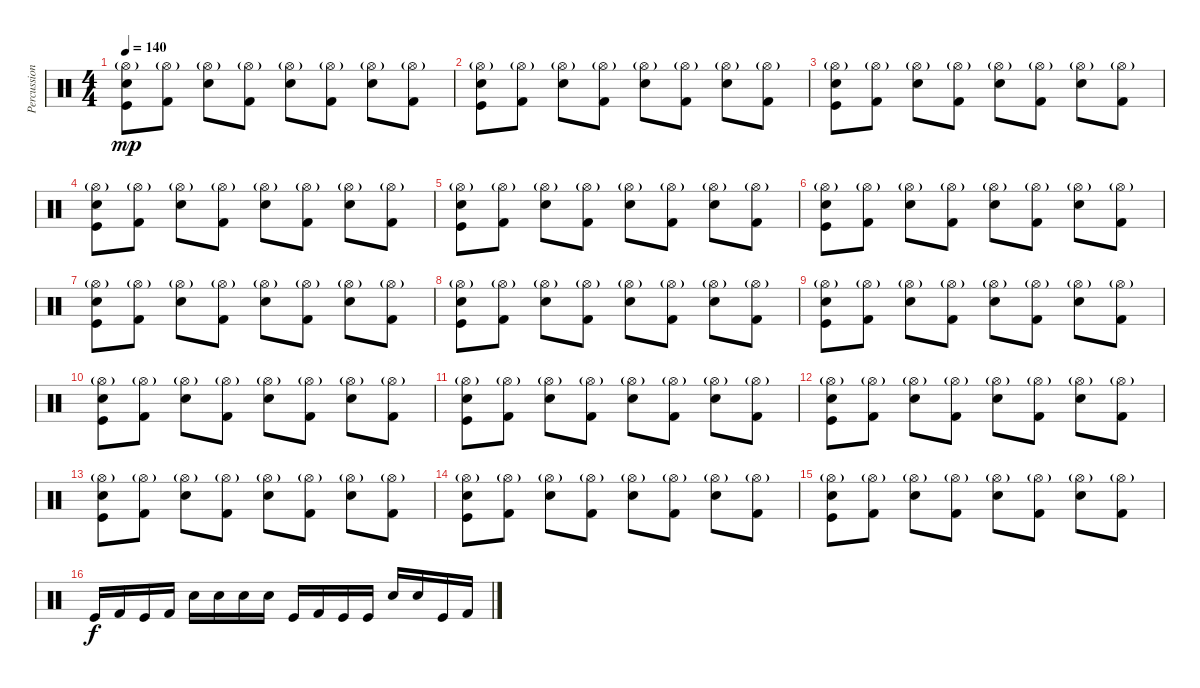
\track ("Percussion" "Percussion") {instrument percussion}
\staff {score}
\articulation defaults
\ts (4 4)
\tempo 140
\clef neutral
\ks c
("Hi-Hat (open)"{g} "Snare (hit) 2" "Kick (hit)").8{dy mp} ("Hi-Hat (open)"{g} "Kick (hit) 2").8 ("Hi-Hat (open)"{g} "Snare (hit) 2").8 ("Hi-Hat (open)"{g} "Kick (hit) 2").8 ("Hi-Hat (open)"{g} "Snare (hit) 2").8 ("Hi-Hat (open)"{g} "Kick (hit) 2").8 ("Hi-Hat (open)"{g} "Snare (hit) 2").8 ("Hi-Hat (open)"{g} "Kick (hit) 2").8 |
("Hi-Hat (open)"{g} "Snare (hit) 2" "Kick (hit)").8 ("Hi-Hat (open)"{g} "Kick (hit) 2").8 ("Hi-Hat (open)"{g} "Snare (hit) 2").8 ("Hi-Hat (open)"{g} "Kick (hit) 2").8 ("Hi-Hat (open)"{g} "Snare (hit) 2").8 ("Hi-Hat (open)"{g} "Kick (hit) 2").8 ("Hi-Hat (open)"{g} "Snare (hit) 2").8 ("Hi-Hat (open)"{g} "Kick (hit) 2").8 |
("Hi-Hat (open)"{g} "Snare (hit) 2" "Kick (hit)").8 ("Hi-Hat (open)"{g} "Kick (hit) 2").8 ("Hi-Hat (open)"{g} "Snare (hit) 2").8 ("Hi-Hat (open)"{g} "Kick (hit) 2").8 ("Hi-Hat (open)"{g} "Snare (hit) 2").8 ("Hi-Hat (open)"{g} "Kick (hit) 2").8 ("Hi-Hat (open)"{g} "Snare (hit) 2").8 ("Hi-Hat (open)"{g} "Kick (hit) 2").8 |
("Hi-Hat (open)"{g} "Snare (hit) 2" "Kick (hit)").8 ("Hi-Hat (open)"{g} "Kick (hit) 2").8 ("Hi-Hat (open)"{g} "Snare (hit) 2").8 ("Hi-Hat (open)"{g} "Kick (hit) 2").8 ("Hi-Hat (open)"{g} "Snare (hit) 2").8 ("Hi-Hat (open)"{g} "Kick (hit) 2").8 ("Hi-Hat (open)"{g} "Snare (hit) 2").8 ("Hi-Hat (open)"{g} "Kick (hit) 2").8 |
("Hi-Hat (open)"{g} "Snare (hit) 2" "Kick (hit)").8 ("Hi-Hat (open)"{g} "Kick (hit) 2").8 ("Hi-Hat (open)"{g} "Snare (hit) 2").8 ("Hi-Hat (open)"{g} "Kick (hit) 2").8 ("Hi-Hat (open)"{g} "Snare (hit) 2").8 ("Hi-Hat (open)"{g} "Kick (hit) 2").8 ("Hi-Hat (open)"{g} "Snare (hit) 2").8 ("Hi-Hat (open)"{g} "Kick (hit) 2").8 |
("Hi-Hat (open)"{g} "Snare (hit) 2" "Kick (hit)").8 ("Hi-Hat (open)"{g} "Kick (hit) 2").8 ("Hi-Hat (open)"{g} "Snare (hit) 2").8 ("Hi-Hat (open)"{g} "Kick (hit) 2").8 ("Hi-Hat (open)"{g} "Snare (hit) 2").8 ("Hi-Hat (open)"{g} "Kick (hit) 2").8 ("Hi-Hat (open)"{g} "Snare (hit) 2").8 ("Hi-Hat (open)"{g} "Kick (hit) 2").8 |
("Hi-Hat (open)"{g} "Snare (hit) 2" "Kick (hit)").8 ("Hi-Hat (open)"{g} "Kick (hit) 2").8 ("Hi-Hat (open)"{g} "Snare (hit) 2").8 ("Hi-Hat (open)"{g} "Kick (hit) 2").8 ("Hi-Hat (open)"{g} "Snare (hit) 2").8 ("Hi-Hat (open)"{g} "Kick (hit) 2").8 ("Hi-Hat (open)"{g} "Snare (hit) 2").8 ("Hi-Hat (open)"{g} "Kick (hit) 2").8 |
("Hi-Hat (open)"{g} "Snare (hit) 2" "Kick (hit)").8 ("Hi-Hat (open)"{g} "Kick (hit) 2").8 ("Hi-Hat (open)"{g} "Snare (hit) 2").8 ("Hi-Hat (open)"{g} "Kick (hit) 2").8 ("Hi-Hat (open)"{g} "Snare (hit) 2").8 ("Hi-Hat (open)"{g} "Kick (hit) 2").8 ("Hi-Hat (open)"{g} "Snare (hit) 2").8 ("Hi-Hat (open)"{g} "Kick (hit) 2").8 |
("Hi-Hat (open)"{g} "Snare (hit) 2" "Kick (hit)").8 ("Hi-Hat (open)"{g} "Kick (hit) 2").8 ("Hi-Hat (open)"{g} "Snare (hit) 2").8 ("Hi-Hat (open)"{g} "Kick (hit) 2").8 ("Hi-Hat (open)"{g} "Snare (hit) 2").8 ("Hi-Hat (open)"{g} "Kick (hit) 2").8 ("Hi-Hat (open)"{g} "Snare (hit) 2").8 ("Hi-Hat (open)"{g} "Kick (hit) 2").8 |
("Hi-Hat (open)"{g} "Snare (hit) 2" "Kick (hit)").8 ("Hi-Hat (open)"{g} "Kick (hit) 2").8 ("Hi-Hat (open)"{g} "Snare (hit) 2").8 ("Hi-Hat (open)"{g} "Kick (hit) 2").8 ("Hi-Hat (open)"{g} "Snare (hit) 2").8 ("Hi-Hat (open)"{g} "Kick (hit) 2").8 ("Hi-Hat (open)"{g} "Snare (hit) 2").8 ("Hi-Hat (open)"{g} "Kick (hit) 2").8 |
("Hi-Hat (open)"{g} "Snare (hit) 2" "Kick (hit)").8 ("Hi-Hat (open)"{g} "Kick (hit) 2").8 ("Hi-Hat (open)"{g} "Snare (hit) 2").8 ("Hi-Hat (open)"{g} "Kick (hit) 2").8 ("Hi-Hat (open)"{g} "Snare (hit) 2").8 ("Hi-Hat (open)"{g} "Kick (hit) 2").8 ("Hi-Hat (open)"{g} "Snare (hit) 2").8 ("Hi-Hat (open)"{g} "Kick (hit) 2").8 |
("Hi-Hat (open)"{g} "Snare (hit) 2" "Kick (hit)").8 ("Hi-Hat (open)"{g} "Kick (hit) 2").8 ("Hi-Hat (open)"{g} "Snare (hit) 2").8 ("Hi-Hat (open)"{g} "Kick (hit) 2").8 ("Hi-Hat (open)"{g} "Snare (hit) 2").8 ("Hi-Hat (open)"{g} "Kick (hit) 2").8 ("Hi-Hat (open)"{g} "Snare (hit) 2").8 ("Hi-Hat (open)"{g} "Kick (hit) 2").8 |
("Hi-Hat (open)"{g} "Snare (hit) 2" "Kick (hit)").8 ("Hi-Hat (open)"{g} "Kick (hit) 2").8 ("Hi-Hat (open)"{g} "Snare (hit) 2").8 ("Hi-Hat (open)"{g} "Kick (hit) 2").8 ("Hi-Hat (open)"{g} "Snare (hit) 2").8 ("Hi-Hat (open)"{g} "Kick (hit) 2").8 ("Hi-Hat (open)"{g} "Snare (hit) 2").8 ("Hi-Hat (open)"{g} "Kick (hit) 2").8 |
("Hi-Hat (open)"{g} "Snare (hit) 2" "Kick (hit)").8 ("Hi-Hat (open)"{g} "Kick (hit) 2").8 ("Hi-Hat (open)"{g} "Snare (hit) 2").8 ("Hi-Hat (open)"{g} "Kick (hit) 2").8 ("Hi-Hat (open)"{g} "Snare (hit) 2").8 ("Hi-Hat (open)"{g} "Kick (hit) 2").8 ("Hi-Hat (open)"{g} "Snare (hit) 2").8 ("Hi-Hat (open)"{g} "Kick (hit) 2").8 |
("Hi-Hat (open)"{g} "Snare (hit) 2" "Kick (hit)").8 ("Hi-Hat (open)"{g} "Kick (hit) 2").8 ("Hi-Hat (open)"{g} "Snare (hit) 2").8 ("Hi-Hat (open)"{g} "Kick (hit) 2").8 ("Hi-Hat (open)"{g} "Snare (hit) 2").8 ("Hi-Hat (open)"{g} "Kick (hit) 2").8 ("Hi-Hat (open)"{g} "Snare (hit) 2").8 ("Hi-Hat (open)"{g} "Kick (hit) 2").8 |
"Kick (hit)".16{dy f} "Kick (hit) 2".16 "Kick (hit)".16 "Kick (hit) 2".16 "Snare (hit) 2".16 "Snare (hit) 2".16 "Snare (hit) 2".16 "Snare (hit) 2".16 "Kick (hit)".16 "Kick (hit) 2".16 "Kick (hit)".16 "Kick (hit)".16 "Snare (hit) 2".16 "Snare (hit) 2".16 "Kick (hit)".16 "Kick (hit) 2".16
